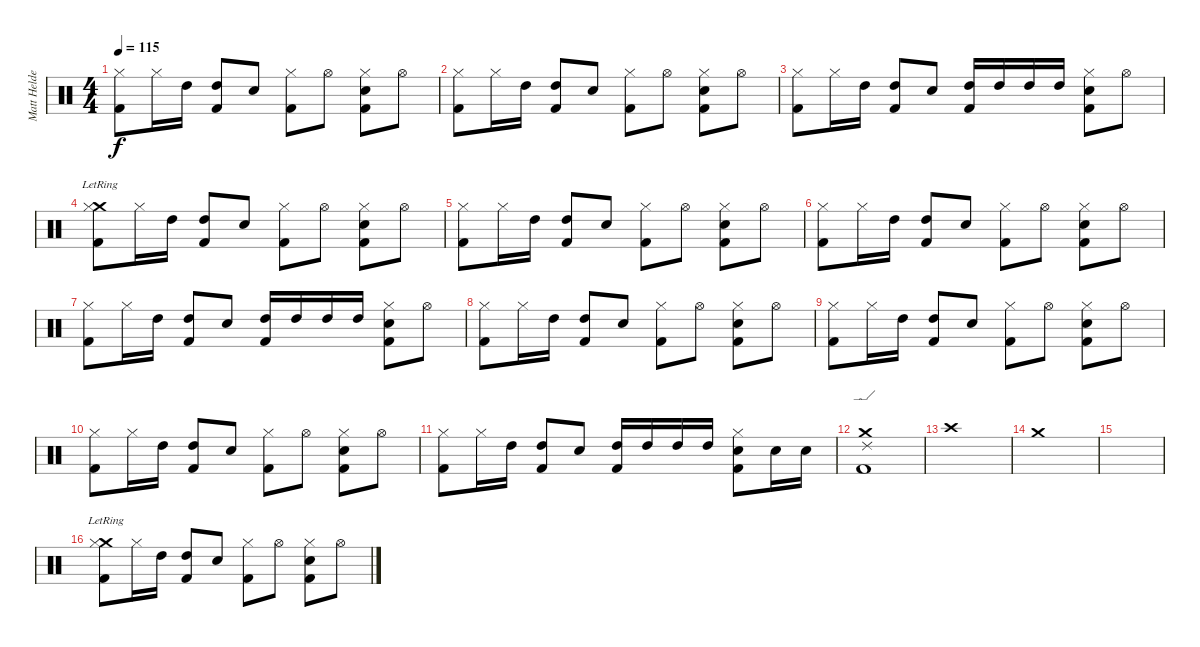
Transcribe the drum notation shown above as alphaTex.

\track ("Matt Helders (Percussion)" "Matt Helde") {instrument percussion}
\staff {score}
\articulation defaults
\ts (4 4)
\tempo 115
\clef neutral
\ks c
("Hi-Hat (closed)" "Kick (hit) 2").8{dy f} "Hi-Hat (closed)".16 "High Tom (hit)".16 ("High Tom (hit)" "Kick (hit) 2").8 "Snare (hit) 2".8 ("Hi-Hat (closed)" "Kick (hit) 2").8 "Hi-Hat (open)".8 ("Hi-Hat (closed)" "Snare (hit) 2" "Kick (hit) 2").8 "Hi-Hat (open)".8 |
("Hi-Hat (closed)" "Kick (hit) 2").8 "Hi-Hat (closed)".16 "High Tom (hit)".16 ("High Tom (hit)" "Kick (hit) 2").8 "Snare (hit) 2".8 ("Hi-Hat (closed)" "Kick (hit) 2").8 "Hi-Hat (open)".8 ("Hi-Hat (closed)" "Snare (hit) 2" "Kick (hit) 2").8 "Hi-Hat (open)".8 |
("Hi-Hat (closed)" "Kick (hit) 2").8 "Hi-Hat (closed)".16 "High Tom (hit)".16 ("High Tom (hit)" "Kick (hit) 2").8 "Snare (hit) 2".8 ("High Tom (hit)" "Kick (hit) 2").16 "High Tom (hit)".16 "High Tom (hit)".16 "High Tom (hit)".16 ("Hi-Hat (closed)" "Snare (hit) 2" "Kick (hit) 2").8 "Hi-Hat (open)".8 |
("Crash medium (hit)"{lr} "Hi-Hat (closed)" "Kick (hit) 2").8 "Hi-Hat (closed)".16 "High Tom (hit)".16 ("High Tom (hit)" "Kick (hit) 2").8 "Snare (hit) 2".8 ("Hi-Hat (closed)" "Kick (hit) 2").8 "Hi-Hat (open)".8 ("Hi-Hat (closed)" "Snare (hit) 2" "Kick (hit) 2").8 "Hi-Hat (open)".8 |
("Hi-Hat (closed)" "Kick (hit) 2").8 "Hi-Hat (closed)".16 "High Tom (hit)".16 ("High Tom (hit)" "Kick (hit) 2").8 "Snare (hit) 2".8 ("Hi-Hat (closed)" "Kick (hit) 2").8 "Hi-Hat (open)".8 ("Hi-Hat (closed)" "Snare (hit) 2" "Kick (hit) 2").8 "Hi-Hat (open)".8 |
("Hi-Hat (closed)" "Kick (hit) 2").8 "Hi-Hat (closed)".16 "High Tom (hit)".16 ("High Tom (hit)" "Kick (hit) 2").8 "Snare (hit) 2".8 ("Hi-Hat (closed)" "Kick (hit) 2").8 "Hi-Hat (open)".8 ("Hi-Hat (closed)" "Snare (hit) 2" "Kick (hit) 2").8 "Hi-Hat (open)".8 |
("Hi-Hat (closed)" "Kick (hit) 2").8 "Hi-Hat (closed)".16 "High Tom (hit)".16 ("High Tom (hit)" "Kick (hit) 2").8 "Snare (hit) 2".8 ("High Tom (hit)" "Kick (hit) 2").16 "High Tom (hit)".16 "High Tom (hit)".16 "High Tom (hit)".16 ("Hi-Hat (closed)" "Snare (hit) 2" "Kick (hit) 2").8 "Hi-Hat (open)".8 |
("Hi-Hat (closed)" "Kick (hit) 2").8 "Hi-Hat (closed)".16 "High Tom (hit)".16 ("High Tom (hit)" "Kick (hit) 2").8 "Snare (hit) 2".8 ("Hi-Hat (closed)" "Kick (hit) 2").8 "Hi-Hat (open)".8 ("Hi-Hat (closed)" "Snare (hit) 2" "Kick (hit) 2").8 "Hi-Hat (open)".8 |
("Hi-Hat (closed)" "Kick (hit) 2").8 "Hi-Hat (closed)".16 "High Tom (hit)".16 ("High Tom (hit)" "Kick (hit) 2").8 "Snare (hit) 2".8 ("Hi-Hat (closed)" "Kick (hit) 2").8 "Hi-Hat (open)".8 ("Hi-Hat (closed)" "Snare (hit) 2" "Kick (hit) 2").8 "Hi-Hat (open)".8 |
("Hi-Hat (closed)" "Kick (hit) 2").8 "Hi-Hat (closed)".16 "High Tom (hit)".16 ("High Tom (hit)" "Kick (hit) 2").8 "Snare (hit) 2".8 ("Hi-Hat (closed)" "Kick (hit) 2").8 "Hi-Hat (open)".8 ("Hi-Hat (closed)" "Snare (hit) 2" "Kick (hit) 2").8 "Hi-Hat (open)".8 |
("Hi-Hat (closed)" "Kick (hit) 2").8 "Hi-Hat (closed)".16 "High Tom (hit)".16 ("High Tom (hit)" "Kick (hit) 2").8 "Snare (hit) 2".8 ("High Tom (hit)" "Kick (hit) 2").16 "High Tom (hit)".16 "High Tom (hit)".16 "High Tom (hit)".16 ("Hi-Hat (closed)" "Snare (hit) 2" "Kick (hit) 2").8 "Snare (hit) 2".16 "Snare (hit) 2".16 |
("Ride (edge) 2" "Crash medium (hit)" "Kick (hit) 2").1 |
"Crash high (hit)".1 |
"Crash medium (hit)".1 |
|
("Crash medium (hit)"{lr} "Hi-Hat (closed)" "Kick (hit) 2").8 "Hi-Hat (closed)".16 "High Tom (hit)".16 ("High Tom (hit)" "Kick (hit) 2").8 "Snare (hit) 2".8 ("Hi-Hat (closed)" "Kick (hit) 2").8 "Hi-Hat (open)".8 ("Hi-Hat (closed)" "Snare (hit) 2" "Kick (hit) 2").8 "Hi-Hat (open)".8
